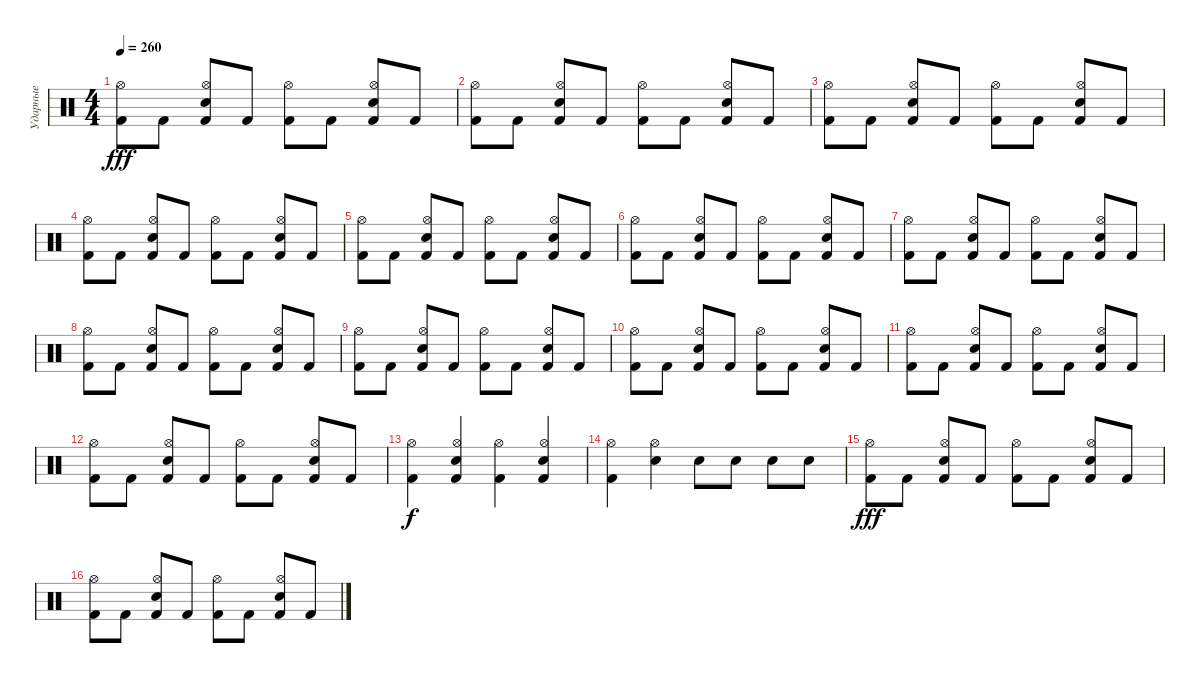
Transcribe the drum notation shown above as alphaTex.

\track ("Ударные" "Ударные") {instrument percussion}
\staff {score}
\articulation defaults
\ts (4 4)
\tempo 260
\clef neutral
\ks c
("Kick (hit) 2" "Hi-Hat (open)").8{dy fff} "Kick (hit) 2".8 ("Kick (hit) 2" "Snare (hit) 2" "Hi-Hat (open)").8 "Kick (hit) 2".8 ("Kick (hit) 2" "Hi-Hat (open)").8 "Kick (hit) 2".8 ("Kick (hit) 2" "Snare (hit) 2" "Hi-Hat (open)").8 "Kick (hit) 2".8 |
("Kick (hit) 2" "Hi-Hat (open)").8 "Kick (hit) 2".8 ("Kick (hit) 2" "Snare (hit) 2" "Hi-Hat (open)").8 "Kick (hit) 2".8 ("Kick (hit) 2" "Hi-Hat (open)").8 "Kick (hit) 2".8 ("Kick (hit) 2" "Snare (hit) 2" "Hi-Hat (open)").8 "Kick (hit) 2".8 |
("Kick (hit) 2" "Hi-Hat (open)").8 "Kick (hit) 2".8 ("Kick (hit) 2" "Snare (hit) 2" "Hi-Hat (open)").8 "Kick (hit) 2".8 ("Kick (hit) 2" "Hi-Hat (open)").8 "Kick (hit) 2".8 ("Kick (hit) 2" "Snare (hit) 2" "Hi-Hat (open)").8 "Kick (hit) 2".8 |
("Kick (hit) 2" "Hi-Hat (open)").8 "Kick (hit) 2".8 ("Kick (hit) 2" "Snare (hit) 2" "Hi-Hat (open)").8 "Kick (hit) 2".8 ("Kick (hit) 2" "Hi-Hat (open)").8 "Kick (hit) 2".8 ("Kick (hit) 2" "Snare (hit) 2" "Hi-Hat (open)").8 "Kick (hit) 2".8 |
("Kick (hit) 2" "Hi-Hat (open)").8 "Kick (hit) 2".8 ("Kick (hit) 2" "Snare (hit) 2" "Hi-Hat (open)").8 "Kick (hit) 2".8 ("Kick (hit) 2" "Hi-Hat (open)").8 "Kick (hit) 2".8 ("Kick (hit) 2" "Snare (hit) 2" "Hi-Hat (open)").8 "Kick (hit) 2".8 |
("Kick (hit) 2" "Hi-Hat (open)").8 "Kick (hit) 2".8 ("Kick (hit) 2" "Snare (hit) 2" "Hi-Hat (open)").8 "Kick (hit) 2".8 ("Kick (hit) 2" "Hi-Hat (open)").8 "Kick (hit) 2".8 ("Kick (hit) 2" "Snare (hit) 2" "Hi-Hat (open)").8 "Kick (hit) 2".8 |
("Kick (hit) 2" "Hi-Hat (open)").8 "Kick (hit) 2".8 ("Kick (hit) 2" "Snare (hit) 2" "Hi-Hat (open)").8 "Kick (hit) 2".8 ("Kick (hit) 2" "Hi-Hat (open)").8 "Kick (hit) 2".8 ("Kick (hit) 2" "Snare (hit) 2" "Hi-Hat (open)").8 "Kick (hit) 2".8 |
("Kick (hit) 2" "Hi-Hat (open)").8 "Kick (hit) 2".8 ("Kick (hit) 2" "Snare (hit) 2" "Hi-Hat (open)").8 "Kick (hit) 2".8 ("Kick (hit) 2" "Hi-Hat (open)").8 "Kick (hit) 2".8 ("Kick (hit) 2" "Snare (hit) 2" "Hi-Hat (open)").8 "Kick (hit) 2".8 |
("Kick (hit) 2" "Hi-Hat (open)").8 "Kick (hit) 2".8 ("Kick (hit) 2" "Snare (hit) 2" "Hi-Hat (open)").8 "Kick (hit) 2".8 ("Kick (hit) 2" "Hi-Hat (open)").8 "Kick (hit) 2".8 ("Kick (hit) 2" "Snare (hit) 2" "Hi-Hat (open)").8 "Kick (hit) 2".8 |
("Kick (hit) 2" "Hi-Hat (open)").8 "Kick (hit) 2".8 ("Kick (hit) 2" "Snare (hit) 2" "Hi-Hat (open)").8 "Kick (hit) 2".8 ("Kick (hit) 2" "Hi-Hat (open)").8 "Kick (hit) 2".8 ("Kick (hit) 2" "Snare (hit) 2" "Hi-Hat (open)").8 "Kick (hit) 2".8 |
("Kick (hit) 2" "Hi-Hat (open)").8 "Kick (hit) 2".8 ("Kick (hit) 2" "Snare (hit) 2" "Hi-Hat (open)").8 "Kick (hit) 2".8 ("Kick (hit) 2" "Hi-Hat (open)").8 "Kick (hit) 2".8 ("Kick (hit) 2" "Snare (hit) 2" "Hi-Hat (open)").8 "Kick (hit) 2".8 |
("Kick (hit) 2" "Hi-Hat (open)").8 "Kick (hit) 2".8 ("Kick (hit) 2" "Snare (hit) 2" "Hi-Hat (open)").8 "Kick (hit) 2".8 ("Kick (hit) 2" "Hi-Hat (open)").8 "Kick (hit) 2".8 ("Kick (hit) 2" "Snare (hit) 2" "Hi-Hat (open)").8 "Kick (hit) 2".8 |
("Kick (hit) 2" "Hi-Hat (open)").4{dy f} ("Kick (hit) 2" "Snare (hit) 2" "Hi-Hat (open)").4 ("Kick (hit) 2" "Hi-Hat (open)").4 ("Kick (hit) 2" "Snare (hit) 2" "Hi-Hat (open)").4 |
("Kick (hit) 2" "Hi-Hat (open)").4 ("Snare (hit) 2" "Hi-Hat (open)").4 "Snare (hit) 2".8 "Snare (hit) 2".8 "Snare (hit) 2".8 "Snare (hit) 2".8 |
("Kick (hit) 2" "Hi-Hat (open)").8{dy fff} "Kick (hit) 2".8 ("Kick (hit) 2" "Snare (hit) 2" "Hi-Hat (open)").8 "Kick (hit) 2".8 ("Kick (hit) 2" "Hi-Hat (open)").8 "Kick (hit) 2".8 ("Kick (hit) 2" "Snare (hit) 2" "Hi-Hat (open)").8 "Kick (hit) 2".8 |
("Kick (hit) 2" "Hi-Hat (open)").8 "Kick (hit) 2".8 ("Kick (hit) 2" "Snare (hit) 2" "Hi-Hat (open)").8 "Kick (hit) 2".8 ("Kick (hit) 2" "Hi-Hat (open)").8 "Kick (hit) 2".8 ("Kick (hit) 2" "Snare (hit) 2" "Hi-Hat (open)").8 "Kick (hit) 2".8
